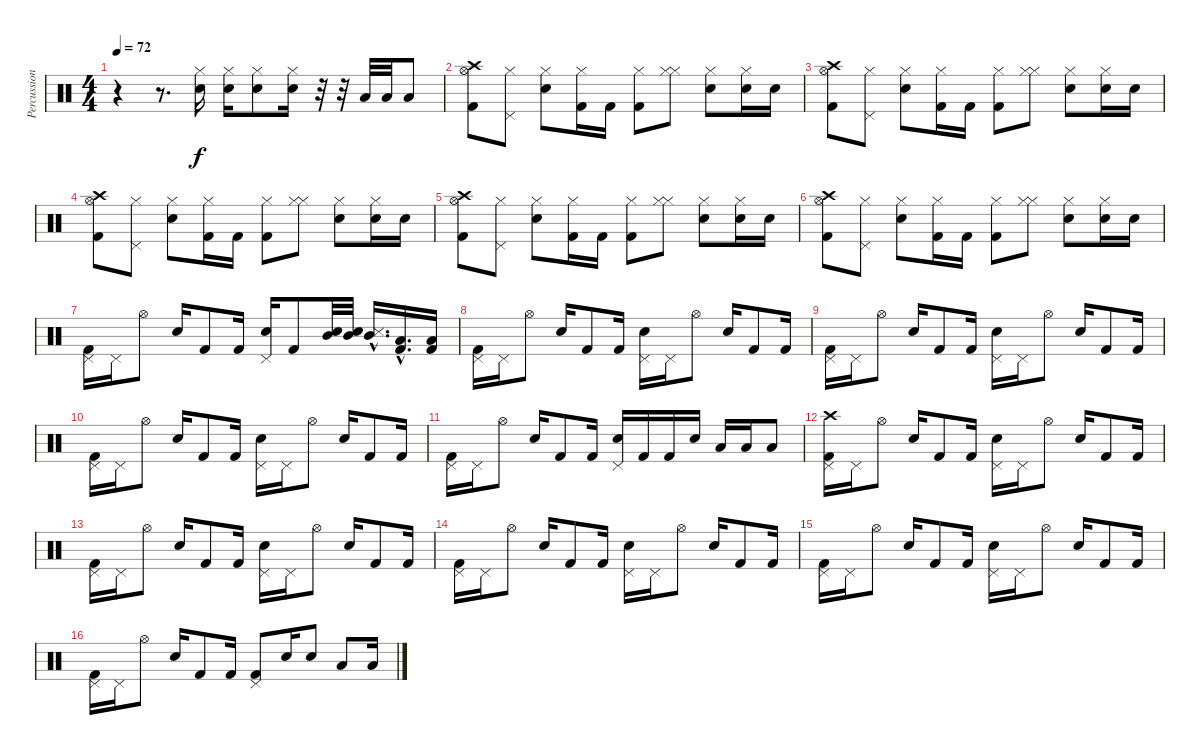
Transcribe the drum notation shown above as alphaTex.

\track ("Percussion" "Percussion") {instrument percussion}
\staff {score}
\articulation defaults
\ts (4 4)
\tempo 72
\clef neutral
\ks c
r.4{dy f} r.8{d} ("Hi-Hat (closed)" "Snare (hit) 2").16 ("Hi-Hat (closed)" "Snare (hit) 2").16 ("Hi-Hat (closed)" "Snare (hit) 2").8 ("Hi-Hat (closed)" "Snare (hit) 2").16 r.32 r.32 "Low Tom (hit)".32 "Low Floor Tom (hit)".32 "Low Floor Tom (hit)".8 |
("Crash high (hit)" "Hi-Hat (open)" "Kick (hit) 2").8 ("Hi-Hat (closed)" "Pedal Hi-Hat (hit)").8 ("Hi-Hat (closed)" "Snare (hit) 2").8 ("Hi-Hat (closed)" "Kick (hit) 2").16 "Kick (hit) 2".16 ("Hi-Hat (closed)" "Kick (hit) 2").8 ("Hi-Hat (closed)" "Hi-Hat (closed)").8 ("Hi-Hat (closed)" "Snare (hit) 2").8 ("Hi-Hat (closed)" "Snare (hit) 2").16 "Snare (hit) 2".16 |
("Crash high (hit)" "Hi-Hat (open)" "Kick (hit) 2").8 ("Hi-Hat (closed)" "Pedal Hi-Hat (hit)").8 ("Hi-Hat (closed)" "Snare (hit) 2").8 ("Hi-Hat (closed)" "Kick (hit) 2").16 "Kick (hit) 2".16 ("Hi-Hat (closed)" "Kick (hit) 2").8 ("Hi-Hat (closed)" "Hi-Hat (closed)").8 ("Hi-Hat (closed)" "Snare (hit) 2").8 ("Hi-Hat (closed)" "Snare (hit) 2").16 "Snare (hit) 2".16 |
("Crash high (hit)" "Hi-Hat (open)" "Kick (hit) 2").8 ("Hi-Hat (closed)" "Pedal Hi-Hat (hit)").8 ("Hi-Hat (closed)" "Snare (hit) 2").8 ("Hi-Hat (closed)" "Kick (hit) 2").16 "Kick (hit) 2".16 ("Hi-Hat (closed)" "Kick (hit) 2").8 ("Hi-Hat (closed)" "Hi-Hat (closed)").8 ("Hi-Hat (closed)" "Snare (hit) 2").8 ("Hi-Hat (closed)" "Snare (hit) 2").16 "Snare (hit) 2".16 |
("Crash high (hit)" "Hi-Hat (open)" "Kick (hit) 2").8 ("Hi-Hat (closed)" "Pedal Hi-Hat (hit)").8 ("Hi-Hat (closed)" "Snare (hit) 2").8 ("Hi-Hat (closed)" "Kick (hit) 2").16 "Kick (hit) 2".16 ("Hi-Hat (closed)" "Kick (hit) 2").8 ("Hi-Hat (closed)" "Hi-Hat (closed)").8 ("Hi-Hat (closed)" "Snare (hit) 2").8 ("Hi-Hat (closed)" "Snare (hit) 2").16 "Snare (hit) 2".16 |
("Crash high (hit)" "Hi-Hat (open)" "Kick (hit) 2").8 ("Hi-Hat (closed)" "Pedal Hi-Hat (hit)").8 ("Hi-Hat (closed)" "Snare (hit) 2").8 ("Hi-Hat (closed)" "Kick (hit) 2").16 "Kick (hit) 2".16 ("Hi-Hat (closed)" "Kick (hit) 2").8 ("Hi-Hat (closed)" "Hi-Hat (closed)").8 ("Hi-Hat (closed)" "Snare (hit) 2").8 ("Hi-Hat (closed)" "Snare (hit) 2").16 "Snare (hit) 2".16 |
("Kick (hit) 2" "Pedal Hi-Hat (hit)").16 "Pedal Hi-Hat (hit)".16 "Hi-Hat (open)".8 "Snare (hit) 2".16 "Kick (hit) 2".8 "Kick (hit) 2".16 ("Pedal Hi-Hat (hit)" "Snare (hit) 2").16 "Kick (hit) 2".8 ("Snare (hit) 2" "Mid Tom (hit)").32 ("Snare (hit) 2" "Mid Tom (hit)").32 ("Snare (side stick) 3"{hac} "Mid Tom (hit)"{hac}).16{d} ("Low Tom (hit)"{hac} "Kick (hit) 2"{hac}).16{d} ("Low Floor Tom (hit)" "Kick (hit) 2").16 |
("Kick (hit) 2" "Pedal Hi-Hat (hit)").16 "Pedal Hi-Hat (hit)".16 "Hi-Hat (open)".8 "Snare (hit) 2".16 "Kick (hit) 2".8 "Kick (hit) 2".16 ("Pedal Hi-Hat (hit)" "Snare (hit) 2").16 "Pedal Hi-Hat (hit)".16 "Hi-Hat (open)".8 "Snare (hit) 2".16 "Kick (hit) 2".8 "Kick (hit) 2".16 |
("Kick (hit) 2" "Pedal Hi-Hat (hit)").16 "Pedal Hi-Hat (hit)".16 "Hi-Hat (open)".8 "Snare (hit) 2".16 "Kick (hit) 2".8 "Kick (hit) 2".16 ("Pedal Hi-Hat (hit)" "Snare (hit) 2").16 "Pedal Hi-Hat (hit)".16 "Hi-Hat (open)".8 "Snare (hit) 2".16 "Kick (hit) 2".8 "Kick (hit) 2".16 |
("Kick (hit) 2" "Pedal Hi-Hat (hit)").16 "Pedal Hi-Hat (hit)".16 "Hi-Hat (open)".8 "Snare (hit) 2".16 "Kick (hit) 2".8 "Kick (hit) 2".16 ("Pedal Hi-Hat (hit)" "Snare (hit) 2").16 "Pedal Hi-Hat (hit)".16 "Hi-Hat (open)".8 "Snare (hit) 2".16 "Kick (hit) 2".8 "Kick (hit) 2".16 |
("Kick (hit) 2" "Pedal Hi-Hat (hit)").16 "Pedal Hi-Hat (hit)".16 "Hi-Hat (open)".8 "Snare (hit) 2".16 "Kick (hit) 2".8 "Kick (hit) 2".16 ("Pedal Hi-Hat (hit)" "Snare (hit) 2").16 "Kick (hit) 2".16 "Kick (hit) 2".16 "Snare (hit) 2".16 "Low Tom (hit)".16 "Low Floor Tom (hit)".16 "Low Floor Tom (hit)".8 |
("Crash high (hit)" "Kick (hit) 2" "Pedal Hi-Hat (hit)").16 "Pedal Hi-Hat (hit)".16 "Hi-Hat (open)".8 "Snare (hit) 2".16 "Kick (hit) 2".8 "Kick (hit) 2".16 ("Pedal Hi-Hat (hit)" "Snare (hit) 2").16 "Pedal Hi-Hat (hit)".16 "Hi-Hat (open)".8 "Snare (hit) 2".16 "Kick (hit) 2".8 "Kick (hit) 2".16 |
("Kick (hit) 2" "Pedal Hi-Hat (hit)").16 "Pedal Hi-Hat (hit)".16 "Hi-Hat (open)".8 "Snare (hit) 2".16 "Kick (hit) 2".8 "Kick (hit) 2".16 ("Pedal Hi-Hat (hit)" "Snare (hit) 2").16 "Pedal Hi-Hat (hit)".16 "Hi-Hat (open)".8 "Snare (hit) 2".16 "Kick (hit) 2".8 "Kick (hit) 2".16 |
("Kick (hit) 2" "Pedal Hi-Hat (hit)").16 "Pedal Hi-Hat (hit)".16 "Hi-Hat (open)".8 "Snare (hit) 2".16 "Kick (hit) 2".8 "Kick (hit) 2".16 ("Pedal Hi-Hat (hit)" "Snare (hit) 2").16 "Pedal Hi-Hat (hit)".16 "Hi-Hat (open)".8 "Snare (hit) 2".16 "Kick (hit) 2".8 "Kick (hit) 2".16 |
("Kick (hit) 2" "Pedal Hi-Hat (hit)").16 "Pedal Hi-Hat (hit)".16 "Hi-Hat (open)".8 "Snare (hit) 2".16 "Kick (hit) 2".8 "Kick (hit) 2".16 ("Pedal Hi-Hat (hit)" "Snare (hit) 2").16 "Pedal Hi-Hat (hit)".16 "Hi-Hat (open)".8 "Snare (hit) 2".16 "Kick (hit) 2".8 "Kick (hit) 2".16 |
("Kick (hit) 2" "Pedal Hi-Hat (hit)").16 "Pedal Hi-Hat (hit)".16 "Hi-Hat (open)".8 "Snare (hit) 2".16 "Kick (hit) 2".8 "Kick (hit) 2".16 ("Pedal Hi-Hat (hit)" "Kick (hit) 2").8 "Snare (hit) 2".16 "Snare (hit) 2".8 "Low Tom (hit)".8 "Low Floor Tom (hit)".16
